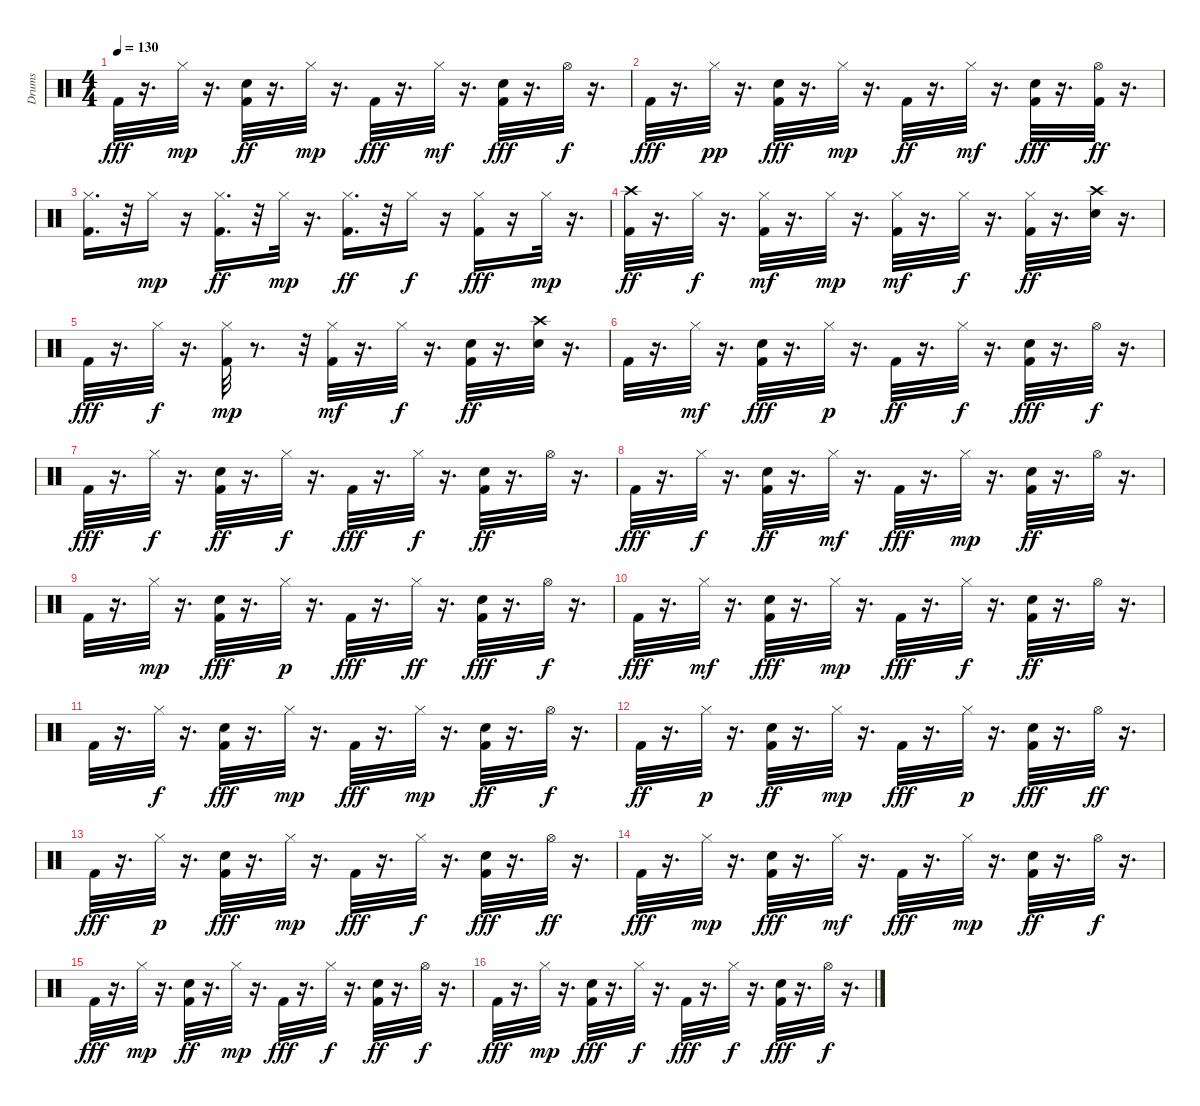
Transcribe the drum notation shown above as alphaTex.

\track ("Drums               " "Drums     ") {instrument percussion}
\staff {score}
\articulation defaults
\ts (4 4)
\tempo 130
\clef neutral
\ks c "Kick (hit) 2".32{dy fff}
r.16{d} "Hi-Hat (closed)".32{dy mp} r.16{d} ("Kick (hit) 2" "Snare (hit) 2").32{dy ff} r.16{d} "Hi-Hat (closed)".32{dy mp} r.16{d} "Kick (hit) 2".32{dy fff} r.16{d} "Hi-Hat (closed)".32{dy mf} r.16{d} ("Kick (hit) 2" "Snare (hit) 2").32{dy fff} r.16{d} "Hi-Hat (open)".32{dy f} r.16{d} |
"Kick (hit) 2".32{dy fff} r.16{d} "Hi-Hat (closed)".32{dy pp} r.16{d} ("Kick (hit) 2" "Snare (hit) 2").32{dy fff} r.16{d} "Hi-Hat (closed)".32{dy mp} r.16{d} "Kick (hit) 2".32{dy ff} r.16{d} "Hi-Hat (closed)".32{dy mf} r.16{d} ("Kick (hit) 2" "Snare (hit) 2").32{dy fff} r.16{d} ("Kick (hit) 2" "Hi-Hat (open)").32{dy ff} r.16{d} |
("Kick (hit) 2" "Hi-Hat (closed)").16{d} r.32 "Hi-Hat (closed)".16{dy mp} r.16 ("Kick (hit) 2" "Hi-Hat (closed)").16{d dy ff} r.32 "Hi-Hat (closed)".32{dy mp} r.16{d} ("Kick (hit) 2" "Hi-Hat (closed)").16{d dy ff} r.32 "Hi-Hat (closed)".16{dy f} r.16 ("Kick (hit) 2" "Hi-Hat (closed)").16{dy fff} r.16 "Hi-Hat (closed)".32{dy mp} r.16{d} |
("Kick (hit) 2" "Crash high (hit)").32{dy ff} r.16{d} "Hi-Hat (closed)".32{dy f} r.16{d} ("Kick (hit) 2" "Hi-Hat (closed)").32{dy mf} r.16{d} "Hi-Hat (closed)".32{dy mp} r.16{d} ("Kick (hit) 2" "Hi-Hat (closed)").32{dy mf} r.16{d} "Hi-Hat (closed)".32{dy f} r.16{d} ("Kick (hit) 2" "Hi-Hat (closed)").32{dy ff} r.16{d} ("Snare (hit) 2" "Crash high (hit)").32 r.16{d} |
"Kick (hit) 2".32{dy fff} r.16{d} "Hi-Hat (closed)".32{dy f} r.16{d} ("Kick (hit) 2" "Hi-Hat (closed)").32{dy mp} r.8{d} r.32 ("Kick (hit) 2" "Hi-Hat (closed)").32{dy mf} r.16{d} "Hi-Hat (closed)".32{dy f} r.16{d} ("Kick (hit) 2" "Snare (hit) 2").32{dy ff} r.16{d} ("Snare (hit) 2" "Crash high (hit)").32 r.16{d} |
"Kick (hit) 2".32 r.16{d} "Hi-Hat (closed)".32{dy mf} r.16{d} ("Kick (hit) 2" "Snare (hit) 2").32{dy fff} r.16{d} "Hi-Hat (closed)".32{dy p} r.16{d} "Kick (hit) 2".32{dy ff} r.16{d} "Hi-Hat (closed)".32{dy f} r.16{d} ("Kick (hit) 2" "Snare (hit) 2").32{dy fff} r.16{d} "Hi-Hat (open)".32{dy f} r.16{d} |
"Kick (hit) 2".32{dy fff} r.16{d} "Hi-Hat (closed)".32{dy f} r.16{d} ("Kick (hit) 2" "Snare (hit) 2").32{dy ff} r.16{d} "Hi-Hat (closed)".32{dy f} r.16{d} "Kick (hit) 2".32{dy fff} r.16{d} "Hi-Hat (closed)".32{dy f} r.16{d} ("Kick (hit) 2" "Snare (hit) 2").32{dy ff} r.16{d} "Hi-Hat (open)".32 r.16{d} |
"Kick (hit) 2".32{dy fff} r.16{d} "Hi-Hat (closed)".32{dy f} r.16{d} ("Kick (hit) 2" "Snare (hit) 2").32{dy ff} r.16{d} "Hi-Hat (closed)".32{dy mf} r.16{d} "Kick (hit) 2".32{dy fff} r.16{d} "Hi-Hat (closed)".32{dy mp} r.16{d} ("Kick (hit) 2" "Snare (hit) 2").32{dy ff} r.16{d} "Hi-Hat (open)".32 r.16{d} |
"Kick (hit) 2".32 r.16{d} "Hi-Hat (closed)".32{dy mp} r.16{d} ("Kick (hit) 2" "Snare (hit) 2").32{dy fff} r.16{d} "Hi-Hat (closed)".32{dy p} r.16{d} "Kick (hit) 2".32{dy fff} r.16{d} "Hi-Hat (closed)".32{dy ff} r.16{d} ("Kick (hit) 2" "Snare (hit) 2").32{dy fff} r.16{d} "Hi-Hat (open)".32{dy f} r.16{d} |
"Kick (hit) 2".32{dy fff} r.16{d} "Hi-Hat (closed)".32{dy mf} r.16{d} ("Kick (hit) 2" "Snare (hit) 2").32{dy fff} r.16{d} "Hi-Hat (closed)".32{dy mp} r.16{d} "Kick (hit) 2".32{dy fff} r.16{d} "Hi-Hat (closed)".32{dy f} r.16{d} ("Kick (hit) 2" "Snare (hit) 2").32{dy ff} r.16{d} "Hi-Hat (open)".32 r.16{d} |
"Kick (hit) 2".32 r.16{d} "Hi-Hat (closed)".32{dy f} r.16{d} ("Kick (hit) 2" "Snare (hit) 2").32{dy fff} r.16{d} "Hi-Hat (closed)".32{dy mp} r.16{d} "Kick (hit) 2".32{dy fff} r.16{d} "Hi-Hat (closed)".32{dy mp} r.16{d} ("Kick (hit) 2" "Snare (hit) 2").32{dy ff} r.16{d} "Hi-Hat (open)".32{dy f} r.16{d} |
"Kick (hit) 2".32{dy ff} r.16{d} "Hi-Hat (closed)".32{dy p} r.16{d} ("Kick (hit) 2" "Snare (hit) 2").32{dy ff} r.16{d} "Hi-Hat (closed)".32{dy mp} r.16{d} "Kick (hit) 2".32{dy fff} r.16{d} "Hi-Hat (closed)".32{dy p} r.16{d} ("Kick (hit) 2" "Snare (hit) 2").32{dy fff} r.16{d} "Hi-Hat (open)".32{dy ff} r.16{d} |
"Kick (hit) 2".32{dy fff} r.16{d} "Hi-Hat (closed)".32{dy p} r.16{d} ("Kick (hit) 2" "Snare (hit) 2").32{dy fff} r.16{d} "Hi-Hat (closed)".32{dy mp} r.16{d} "Kick (hit) 2".32{dy fff} r.16{d} "Hi-Hat (closed)".32{dy f} r.16{d} ("Kick (hit) 2" "Snare (hit) 2").32{dy fff} r.16{d} "Hi-Hat (open)".32{dy ff} r.16{d} |
"Kick (hit) 2".32{dy fff} r.16{d} "Hi-Hat (closed)".32{dy mp} r.16{d} ("Kick (hit) 2" "Snare (hit) 2").32{dy fff} r.16{d} "Hi-Hat (closed)".32{dy mf} r.16{d} "Kick (hit) 2".32{dy fff} r.16{d} "Hi-Hat (closed)".32{dy mp} r.16{d} ("Kick (hit) 2" "Snare (hit) 2").32{dy ff} r.16{d} "Hi-Hat (open)".32{dy f} r.16{d} |
"Kick (hit) 2".32{dy fff} r.16{d} "Hi-Hat (closed)".32{dy mp} r.16{d} ("Kick (hit) 2" "Snare (hit) 2").32{dy ff} r.16{d} "Hi-Hat (closed)".32{dy mp} r.16{d} "Kick (hit) 2".32{dy fff} r.16{d} "Hi-Hat (closed)".32{dy f} r.16{d} ("Kick (hit) 2" "Snare (hit) 2").32{dy ff} r.16{d} "Hi-Hat (open)".32{dy f} r.16{d} |
"Kick (hit) 2".32{dy fff} r.16{d} "Hi-Hat (closed)".32{dy mp} r.16{d} ("Kick (hit) 2" "Snare (hit) 2").32{dy fff} r.16{d} "Hi-Hat (closed)".32{dy f} r.16{d} "Kick (hit) 2".32{dy fff} r.16{d} "Hi-Hat (closed)".32{dy f} r.16{d} ("Kick (hit) 2" "Snare (hit) 2").32{dy fff} r.16{d} "Hi-Hat (open)".32{dy f} r.16{d}
